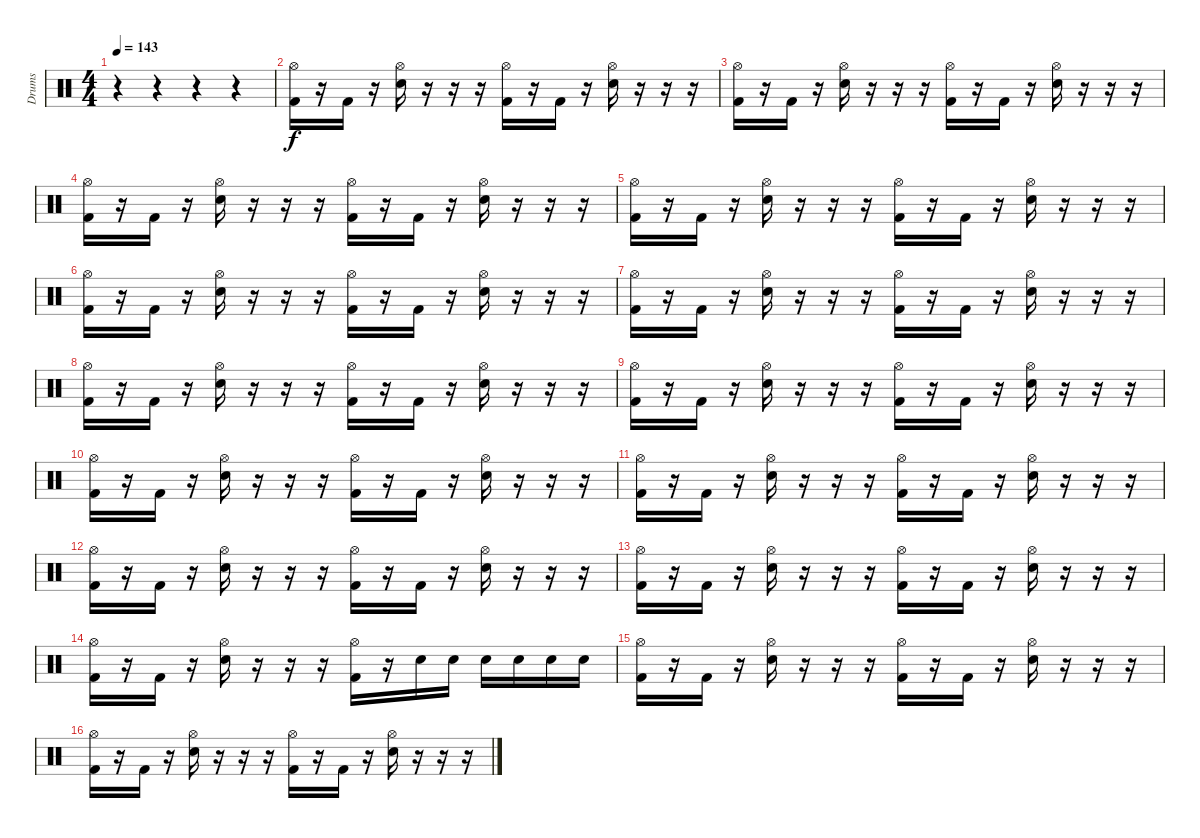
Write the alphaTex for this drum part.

\track ("Drums" "Drums") {instrument percussion}
\staff {score}
\articulation defaults
\ts (4 4)
\tempo 143
\clef neutral
\ks c
r.4{dy f} r.4 r.4 r.4 |
("Kick (hit) 2" "Hi-Hat (open)").16 r.16 "Kick (hit) 2".16 r.16 ("Electric Snare (hit)" "Hi-Hat (open)").16 r.16 r.16 r.16 ("Kick (hit) 2" "Hi-Hat (open)").16 r.16 "Kick (hit) 2".16 r.16 ("Electric Snare (hit)" "Hi-Hat (open)").16 r.16 r.16 r.16 |
("Kick (hit) 2" "Hi-Hat (open)").16 r.16 "Kick (hit) 2".16 r.16 ("Electric Snare (hit)" "Hi-Hat (open)").16 r.16 r.16 r.16 ("Kick (hit) 2" "Hi-Hat (open)").16 r.16 "Kick (hit) 2".16 r.16 ("Electric Snare (hit)" "Hi-Hat (open)").16 r.16 r.16 r.16 |
("Kick (hit) 2" "Hi-Hat (open)").16 r.16 "Kick (hit) 2".16 r.16 ("Electric Snare (hit)" "Hi-Hat (open)").16 r.16 r.16 r.16 ("Kick (hit) 2" "Hi-Hat (open)").16 r.16 "Kick (hit) 2".16 r.16 ("Electric Snare (hit)" "Hi-Hat (open)").16 r.16 r.16 r.16 |
("Kick (hit) 2" "Hi-Hat (open)").16 r.16 "Kick (hit) 2".16 r.16 ("Electric Snare (hit)" "Hi-Hat (open)").16 r.16 r.16 r.16 ("Kick (hit) 2" "Hi-Hat (open)").16 r.16 "Kick (hit) 2".16 r.16 ("Electric Snare (hit)" "Hi-Hat (open)").16 r.16 r.16 r.16 |
("Kick (hit) 2" "Hi-Hat (open)").16 r.16 "Kick (hit) 2".16 r.16 ("Electric Snare (hit)" "Hi-Hat (open)").16 r.16 r.16 r.16 ("Kick (hit) 2" "Hi-Hat (open)").16 r.16 "Kick (hit) 2".16 r.16 ("Electric Snare (hit)" "Hi-Hat (open)").16 r.16 r.16 r.16 |
("Kick (hit) 2" "Hi-Hat (open)").16 r.16 "Kick (hit) 2".16 r.16 ("Electric Snare (hit)" "Hi-Hat (open)").16 r.16 r.16 r.16 ("Kick (hit) 2" "Hi-Hat (open)").16 r.16 "Kick (hit) 2".16 r.16 ("Electric Snare (hit)" "Hi-Hat (open)").16 r.16 r.16 r.16 |
("Kick (hit) 2" "Hi-Hat (open)").16 r.16 "Kick (hit) 2".16 r.16 ("Electric Snare (hit)" "Hi-Hat (open)").16 r.16 r.16 r.16 ("Kick (hit) 2" "Hi-Hat (open)").16 r.16 "Kick (hit) 2".16 r.16 ("Electric Snare (hit)" "Hi-Hat (open)").16 r.16 r.16 r.16 |
("Kick (hit) 2" "Hi-Hat (open)").16 r.16 "Kick (hit) 2".16 r.16 ("Electric Snare (hit)" "Hi-Hat (open)").16 r.16 r.16 r.16 ("Kick (hit) 2" "Hi-Hat (open)").16 r.16 "Kick (hit) 2".16 r.16 ("Electric Snare (hit)" "Hi-Hat (open)").16 r.16 r.16 r.16 |
("Kick (hit) 2" "Hi-Hat (open)").16 r.16 "Kick (hit) 2".16 r.16 ("Electric Snare (hit)" "Hi-Hat (open)").16 r.16 r.16 r.16 ("Kick (hit) 2" "Hi-Hat (open)").16 r.16 "Kick (hit) 2".16 r.16 ("Electric Snare (hit)" "Hi-Hat (open)").16 r.16 r.16 r.16 |
("Kick (hit) 2" "Hi-Hat (open)").16 r.16 "Kick (hit) 2".16 r.16 ("Electric Snare (hit)" "Hi-Hat (open)").16 r.16 r.16 r.16 ("Kick (hit) 2" "Hi-Hat (open)").16 r.16 "Kick (hit) 2".16 r.16 ("Electric Snare (hit)" "Hi-Hat (open)").16 r.16 r.16 r.16 |
("Kick (hit) 2" "Hi-Hat (open)").16 r.16 "Kick (hit) 2".16 r.16 ("Electric Snare (hit)" "Hi-Hat (open)").16 r.16 r.16 r.16 ("Kick (hit) 2" "Hi-Hat (open)").16 r.16 "Kick (hit) 2".16 r.16 ("Electric Snare (hit)" "Hi-Hat (open)").16 r.16 r.16 r.16 |
("Kick (hit) 2" "Hi-Hat (open)").16 r.16 "Kick (hit) 2".16 r.16 ("Electric Snare (hit)" "Hi-Hat (open)").16 r.16 r.16 r.16 ("Kick (hit) 2" "Hi-Hat (open)").16 r.16 "Kick (hit) 2".16 r.16 ("Electric Snare (hit)" "Hi-Hat (open)").16 r.16 r.16 r.16 |
("Kick (hit) 2" "Hi-Hat (open)").16 r.16 "Kick (hit) 2".16 r.16 ("Electric Snare (hit)" "Hi-Hat (open)").16 r.16 r.16 r.16 ("Kick (hit) 2" "Hi-Hat (open)").16 r.16 "Electric Snare (hit)".16 "Electric Snare (hit)".16 "Electric Snare (hit)".16 "Electric Snare (hit)".16 "Electric Snare (hit)".16 "Electric Snare (hit)".16 |
("Kick (hit) 2" "Hi-Hat (open)").16 r.16 "Kick (hit) 2".16 r.16 ("Electric Snare (hit)" "Hi-Hat (open)").16 r.16 r.16 r.16 ("Kick (hit) 2" "Hi-Hat (open)").16 r.16 "Kick (hit) 2".16 r.16 ("Electric Snare (hit)" "Hi-Hat (open)").16 r.16 r.16 r.16 |
("Kick (hit) 2" "Hi-Hat (open)").16 r.16 "Kick (hit) 2".16 r.16 ("Electric Snare (hit)" "Hi-Hat (open)").16 r.16 r.16 r.16 ("Kick (hit) 2" "Hi-Hat (open)").16 r.16 "Kick (hit) 2".16 r.16 ("Electric Snare (hit)" "Hi-Hat (open)").16 r.16 r.16 r.16
